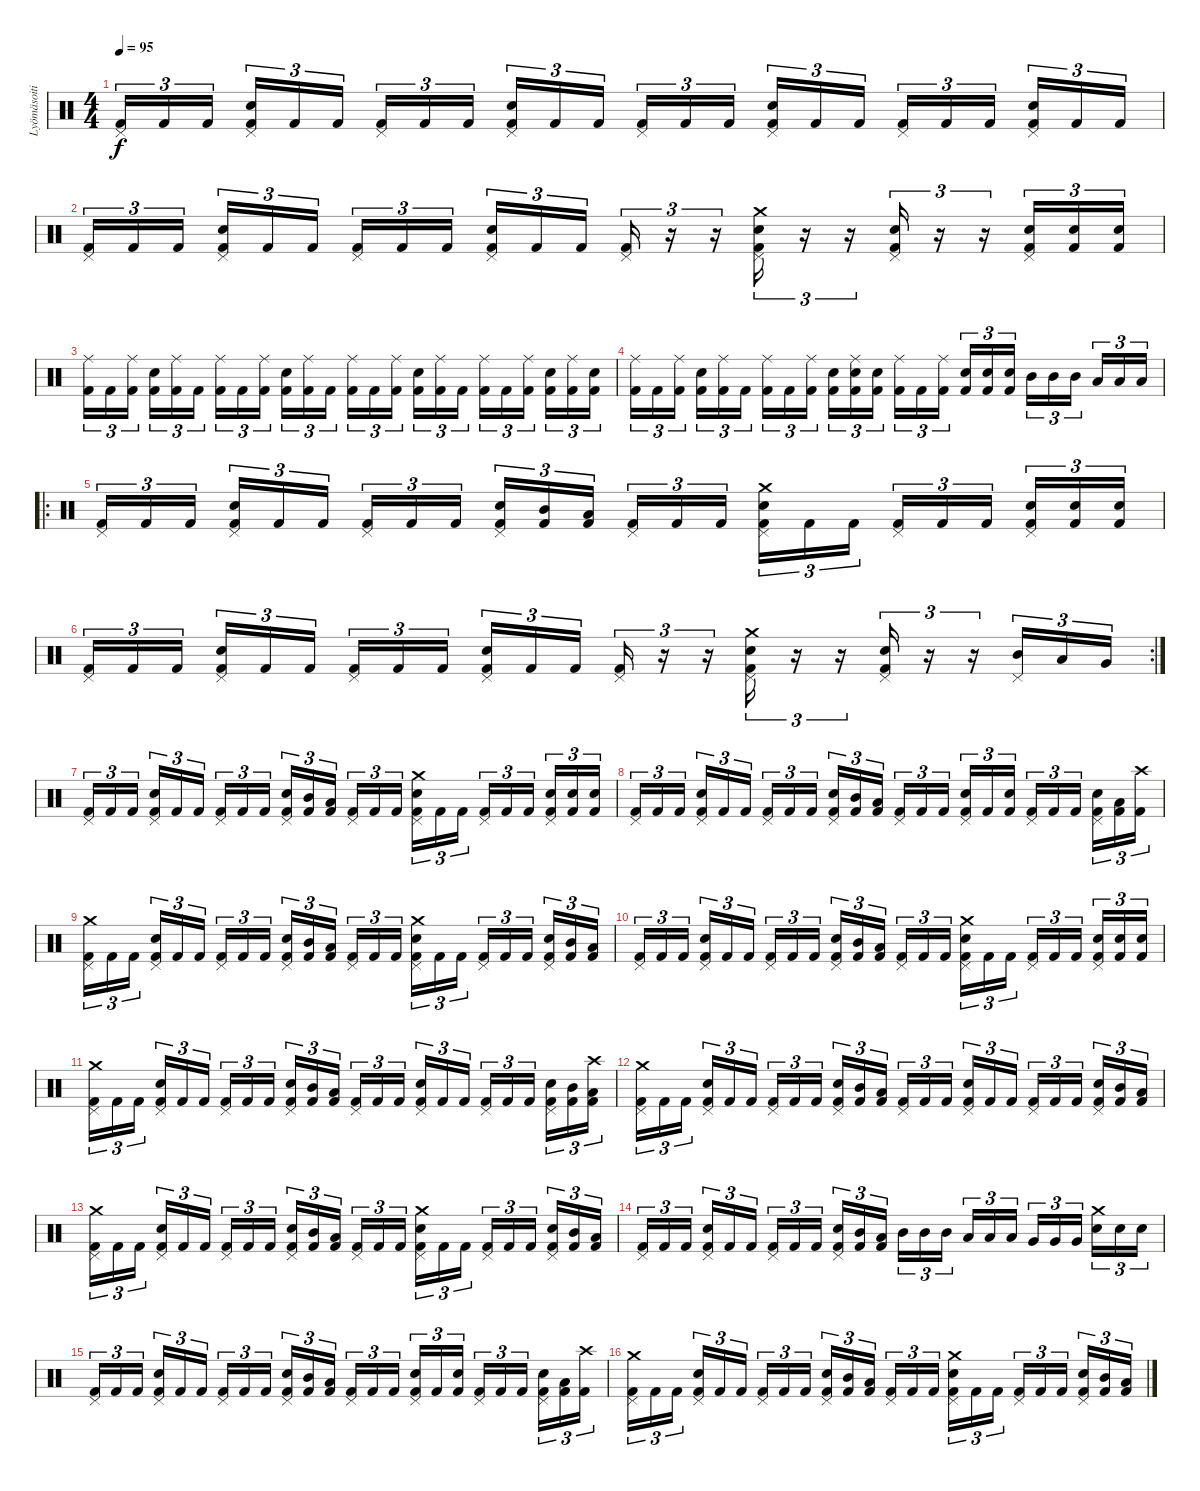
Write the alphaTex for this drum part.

\track ("Lyömäsoitin" "Lyömäsoiti") {instrument percussion}
\staff {score}
\articulation defaults
\ts (4 4)
\tempo 95
\clef neutral
\ks c
("Kick (hit) 2" "Pedal Hi-Hat (hit)").16{tu (3 2) dy f} "Kick (hit) 2".16{tu (3 2)} "Kick (hit) 2".16{tu (3 2)} ("Kick (hit) 2" "Electric Snare (hit)" "Pedal Hi-Hat (hit)").16{tu (3 2)} "Kick (hit) 2".16{tu (3 2)} "Kick (hit) 2".16{tu (3 2)} ("Kick (hit) 2" "Pedal Hi-Hat (hit)").16{tu (3 2)} "Kick (hit) 2".16{tu (3 2)} "Kick (hit) 2".16{tu (3 2)} ("Kick (hit) 2" "Electric Snare (hit)" "Pedal Hi-Hat (hit)").16{tu (3 2)} "Kick (hit) 2".16{tu (3 2)} "Kick (hit) 2".16{tu (3 2)} ("Kick (hit) 2" "Pedal Hi-Hat (hit)").16{tu (3 2)} "Kick (hit) 2".16{tu (3 2)} "Kick (hit) 2".16{tu (3 2)} ("Kick (hit) 2" "Electric Snare (hit)" "Pedal Hi-Hat (hit)").16{tu (3 2)} "Kick (hit) 2".16{tu (3 2)} "Kick (hit) 2".16{tu (3 2)} ("Kick (hit) 2" "Pedal Hi-Hat (hit)").16{tu (3 2)} "Kick (hit) 2".16{tu (3 2)} "Kick (hit) 2".16{tu (3 2)} ("Kick (hit) 2" "Electric Snare (hit)" "Pedal Hi-Hat (hit)").16{tu (3 2)} "Kick (hit) 2".16{tu (3 2)} "Kick (hit) 2".16{tu (3 2)} |
("Kick (hit) 2" "Pedal Hi-Hat (hit)").16{tu (3 2)} "Kick (hit) 2".16{tu (3 2)} "Kick (hit) 2".16{tu (3 2)} ("Kick (hit) 2" "Electric Snare (hit)" "Pedal Hi-Hat (hit)").16{tu (3 2)} "Kick (hit) 2".16{tu (3 2)} "Kick (hit) 2".16{tu (3 2)} ("Kick (hit) 2" "Pedal Hi-Hat (hit)").16{tu (3 2)} "Kick (hit) 2".16{tu (3 2)} "Kick (hit) 2".16{tu (3 2)} ("Kick (hit) 2" "Electric Snare (hit)" "Pedal Hi-Hat (hit)").16{tu (3 2)} "Kick (hit) 2".16{tu (3 2)} "Kick (hit) 2".16{tu (3 2)} ("Kick (hit) 2" "Pedal Hi-Hat (hit)").16{tu (3 2)} r.16{tu (3 2)} r.16{tu (3 2)} ("Kick (hit) 2" "Electric Snare (hit)" "Pedal Hi-Hat (hit)" "Crash medium (hit)").16{tu (3 2)} r.16{tu (3 2)} r.16{tu (3 2)} ("Kick (hit) 2" "Electric Snare (hit)" "Pedal Hi-Hat (hit)").16{tu (3 2)} r.16{tu (3 2)} r.16{tu (3 2)} ("Kick (hit) 2" "Electric Snare (hit)" "Pedal Hi-Hat (hit)").16{tu (3 2)} ("Kick (hit) 2" "Electric Snare (hit)").16{tu (3 2)} ("Kick (hit) 2" "Electric Snare (hit)").16{tu (3 2)} |
("Kick (hit) 2" "Ride (middle)").16{tu (3 2)} "Kick (hit) 2".16{tu (3 2)} ("Kick (hit) 2" "Ride (middle)").16{tu (3 2)} ("Kick (hit) 2" "Electric Snare (hit)").16{tu (3 2)} ("Kick (hit) 2" "Ride (middle)").16{tu (3 2)} "Kick (hit) 2".16{tu (3 2)} ("Kick (hit) 2" "Ride (middle)").16{tu (3 2)} "Kick (hit) 2".16{tu (3 2)} ("Kick (hit) 2" "Ride (middle)").16{tu (3 2)} ("Kick (hit) 2" "Electric Snare (hit)").16{tu (3 2)} ("Kick (hit) 2" "Ride (middle)").16{tu (3 2)} "Kick (hit) 2".16{tu (3 2)} ("Kick (hit) 2" "Ride (middle)").16{tu (3 2)} "Kick (hit) 2".16{tu (3 2)} ("Kick (hit) 2" "Ride (middle)").16{tu (3 2)} ("Kick (hit) 2" "Electric Snare (hit)").16{tu (3 2)} ("Kick (hit) 2" "Ride (middle)").16{tu (3 2)} "Kick (hit) 2".16{tu (3 2)} ("Kick (hit) 2" "Ride (middle)").16{tu (3 2)} "Kick (hit) 2".16{tu (3 2)} ("Kick (hit) 2" "Ride (middle)").16{tu (3 2)} ("Kick (hit) 2" "Electric Snare (hit)").16{tu (3 2)} ("Kick (hit) 2" "Ride (middle)").16{tu (3 2)} ("Kick (hit) 2" "Electric Snare (hit)").16{tu (3 2)} |
("Kick (hit) 2" "Ride (middle)").16{tu (3 2)} "Kick (hit) 2".16{tu (3 2)} ("Kick (hit) 2" "Ride (middle)").16{tu (3 2)} ("Kick (hit) 2" "Electric Snare (hit)").16{tu (3 2)} ("Kick (hit) 2" "Ride (middle)").16{tu (3 2)} "Kick (hit) 2".16{tu (3 2)} ("Kick (hit) 2" "Ride (middle)").16{tu (3 2)} "Kick (hit) 2".16{tu (3 2)} ("Kick (hit) 2" "Ride (middle)").16{tu (3 2)} ("Kick (hit) 2" "Electric Snare (hit)").16{tu (3 2)} ("Kick (hit) 2" "Electric Snare (hit)" "Ride (middle)").16{tu (3 2)} ("Kick (hit) 2" "Electric Snare (hit)").16{tu (3 2)} ("Kick (hit) 2" "Ride (middle)").16{tu (3 2)} "Kick (hit) 2".16{tu (3 2)} ("Kick (hit) 2" "Ride (middle)").16{tu (3 2)} ("Kick (hit) 2" "Electric Snare (hit)").16{tu (3 2)} ("Kick (hit) 2" "Electric Snare (hit)").16{tu (3 2)} ("Kick (hit) 2" "Electric Snare (hit)").16{tu (3 2)} "Mid Tom (hit)".16{tu (3 2)} "Mid Tom (hit)".16{tu (3 2)} "Mid Tom (hit)".16{tu (3 2)} "Low Tom (hit)".16{tu (3 2)} "Low Tom (hit)".16{tu (3 2)} "Low Tom (hit)".16{tu (3 2)} |
\ro
("Kick (hit) 2" "Pedal Hi-Hat (hit)").16{tu (3 2)} "Kick (hit) 2".16{tu (3 2)} "Kick (hit) 2".16{tu (3 2)} ("Kick (hit) 2" "Electric Snare (hit)" "Pedal Hi-Hat (hit)").16{tu (3 2)} "Kick (hit) 2".16{tu (3 2)} "Kick (hit) 2".16{tu (3 2)} ("Kick (hit) 2" "Pedal Hi-Hat (hit)").16{tu (3 2)} "Kick (hit) 2".16{tu (3 2)} "Kick (hit) 2".16{tu (3 2)} ("Kick (hit) 2" "Electric Snare (hit)" "Pedal Hi-Hat (hit)").16{tu (3 2)} ("Kick (hit) 2" "Mid Tom (hit)").16{tu (3 2)} ("Kick (hit) 2" "Low Tom (hit)").16{tu (3 2)} ("Kick (hit) 2" "Pedal Hi-Hat (hit)").16{tu (3 2)} "Kick (hit) 2".16{tu (3 2)} "Kick (hit) 2".16{tu (3 2)} ("Kick (hit) 2" "Electric Snare (hit)" "Pedal Hi-Hat (hit)" "Crash medium (hit)").16{tu (3 2)} "Kick (hit) 2".16{tu (3 2)} "Kick (hit) 2".16{tu (3 2)} ("Kick (hit) 2" "Pedal Hi-Hat (hit)").16{tu (3 2)} "Kick (hit) 2".16{tu (3 2)} "Kick (hit) 2".16{tu (3 2)} ("Kick (hit) 2" "Electric Snare (hit)" "Pedal Hi-Hat (hit)").16{tu (3 2)} ("Kick (hit) 2" "Electric Snare (hit)").16{tu (3 2)} ("Kick (hit) 2" "Electric Snare (hit)").16{tu (3 2)} |
\rc 2
("Kick (hit) 2" "Pedal Hi-Hat (hit)").16{tu (3 2)} "Kick (hit) 2".16{tu (3 2)} "Kick (hit) 2".16{tu (3 2)} ("Kick (hit) 2" "Electric Snare (hit)" "Pedal Hi-Hat (hit)").16{tu (3 2)} "Kick (hit) 2".16{tu (3 2)} "Kick (hit) 2".16{tu (3 2)} ("Kick (hit) 2" "Pedal Hi-Hat (hit)").16{tu (3 2)} "Kick (hit) 2".16{tu (3 2)} "Kick (hit) 2".16{tu (3 2)} ("Kick (hit) 2" "Electric Snare (hit)" "Pedal Hi-Hat (hit)").16{tu (3 2)} "Kick (hit) 2".16{tu (3 2)} "Kick (hit) 2".16{tu (3 2)} ("Kick (hit) 2" "Pedal Hi-Hat (hit)").16{tu (3 2)} r.16{tu (3 2)} r.16{tu (3 2)} ("Kick (hit) 2" "Electric Snare (hit)" "Pedal Hi-Hat (hit)" "Crash medium (hit)").16{tu (3 2)} r.16{tu (3 2)} r.16{tu (3 2)} ("Kick (hit) 2" "Electric Snare (hit)" "Pedal Hi-Hat (hit)").16{tu (3 2)} r.16{tu (3 2)} r.16{tu (3 2)} ("Mid Tom (hit)" "Pedal Hi-Hat (hit)").16{tu (3 2)} "Low Tom (hit)".16{tu (3 2)} "Very Low Tom (hit)".16{tu (3 2)} |
("Kick (hit) 2" "Pedal Hi-Hat (hit)").16{tu (3 2)} "Kick (hit) 2".16{tu (3 2)} "Kick (hit) 2".16{tu (3 2)} ("Kick (hit) 2" "Electric Snare (hit)" "Pedal Hi-Hat (hit)").16{tu (3 2)} "Kick (hit) 2".16{tu (3 2)} "Kick (hit) 2".16{tu (3 2)} ("Kick (hit) 2" "Pedal Hi-Hat (hit)").16{tu (3 2)} "Kick (hit) 2".16{tu (3 2)} "Kick (hit) 2".16{tu (3 2)} ("Kick (hit) 2" "Electric Snare (hit)" "Pedal Hi-Hat (hit)").16{tu (3 2)} ("Kick (hit) 2" "Mid Tom (hit)").16{tu (3 2)} ("Kick (hit) 2" "Low Tom (hit)").16{tu (3 2)} ("Kick (hit) 2" "Pedal Hi-Hat (hit)").16{tu (3 2)} "Kick (hit) 2".16{tu (3 2)} "Kick (hit) 2".16{tu (3 2)} ("Kick (hit) 2" "Electric Snare (hit)" "Pedal Hi-Hat (hit)" "Crash medium (hit)").16{tu (3 2)} "Kick (hit) 2".16{tu (3 2)} "Kick (hit) 2".16{tu (3 2)} ("Kick (hit) 2" "Pedal Hi-Hat (hit)").16{tu (3 2)} "Kick (hit) 2".16{tu (3 2)} "Kick (hit) 2".16{tu (3 2)} ("Kick (hit) 2" "Electric Snare (hit)" "Pedal Hi-Hat (hit)").16{tu (3 2)} ("Kick (hit) 2" "Electric Snare (hit)").16{tu (3 2)} ("Kick (hit) 2" "Electric Snare (hit)").16{tu (3 2)} |
("Kick (hit) 2" "Pedal Hi-Hat (hit)").16{tu (3 2)} "Kick (hit) 2".16{tu (3 2)} "Kick (hit) 2".16{tu (3 2)} ("Kick (hit) 2" "Electric Snare (hit)" "Pedal Hi-Hat (hit)").16{tu (3 2)} "Kick (hit) 2".16{tu (3 2)} "Kick (hit) 2".16{tu (3 2)} ("Kick (hit) 2" "Pedal Hi-Hat (hit)").16{tu (3 2)} "Kick (hit) 2".16{tu (3 2)} "Kick (hit) 2".16{tu (3 2)} ("Kick (hit) 2" "Electric Snare (hit)" "Pedal Hi-Hat (hit)").16{tu (3 2)} ("Kick (hit) 2" "Mid Tom (hit)").16{tu (3 2)} ("Kick (hit) 2" "Low Tom (hit)").16{tu (3 2)} ("Kick (hit) 2" "Pedal Hi-Hat (hit)").16{tu (3 2)} "Kick (hit) 2".16{tu (3 2)} "Kick (hit) 2".16{tu (3 2)} ("Kick (hit) 2" "Electric Snare (hit)" "Pedal Hi-Hat (hit)").16{tu (3 2)} "Kick (hit) 2".16{tu (3 2)} ("Kick (hit) 2" "Electric Snare (hit)").16{tu (3 2)} ("Kick (hit) 2" "Pedal Hi-Hat (hit)").16{tu (3 2)} "Kick (hit) 2".16{tu (3 2)} "Kick (hit) 2".16{tu (3 2)} ("Kick (hit) 2" "Electric Snare (hit)" "Pedal Hi-Hat (hit)").16{tu (3 2)} ("Kick (hit) 2" "Low Tom (hit)").16{tu (3 2)} ("Kick (hit) 2" "Crash high (hit)").16{tu (3 2)} |
("Kick (hit) 2" "Pedal Hi-Hat (hit)" "Crash medium (hit)").16{tu (3 2)} "Kick (hit) 2".16{tu (3 2)} "Kick (hit) 2".16{tu (3 2)} ("Kick (hit) 2" "Electric Snare (hit)" "Pedal Hi-Hat (hit)").16{tu (3 2)} "Kick (hit) 2".16{tu (3 2)} "Kick (hit) 2".16{tu (3 2)} ("Kick (hit) 2" "Pedal Hi-Hat (hit)").16{tu (3 2)} "Kick (hit) 2".16{tu (3 2)} "Kick (hit) 2".16{tu (3 2)} ("Kick (hit) 2" "Electric Snare (hit)" "Pedal Hi-Hat (hit)").16{tu (3 2)} ("Kick (hit) 2" "Mid Tom (hit)").16{tu (3 2)} ("Kick (hit) 2" "Low Tom (hit)").16{tu (3 2)} ("Kick (hit) 2" "Pedal Hi-Hat (hit)").16{tu (3 2)} "Kick (hit) 2".16{tu (3 2)} "Kick (hit) 2".16{tu (3 2)} ("Kick (hit) 2" "Electric Snare (hit)" "Pedal Hi-Hat (hit)" "Crash medium (hit)").16{tu (3 2)} "Kick (hit) 2".16{tu (3 2)} "Kick (hit) 2".16{tu (3 2)} ("Kick (hit) 2" "Pedal Hi-Hat (hit)").16{tu (3 2)} "Kick (hit) 2".16{tu (3 2)} "Kick (hit) 2".16{tu (3 2)} ("Kick (hit) 2" "Electric Snare (hit)" "Pedal Hi-Hat (hit)").16{tu (3 2)} ("Kick (hit) 2" "Mid Tom (hit)").16{tu (3 2)} ("Kick (hit) 2" "Low Tom (hit)").16{tu (3 2)} |
("Kick (hit) 2" "Pedal Hi-Hat (hit)").16{tu (3 2)} "Kick (hit) 2".16{tu (3 2)} "Kick (hit) 2".16{tu (3 2)} ("Kick (hit) 2" "Electric Snare (hit)" "Pedal Hi-Hat (hit)").16{tu (3 2)} "Kick (hit) 2".16{tu (3 2)} "Kick (hit) 2".16{tu (3 2)} ("Kick (hit) 2" "Pedal Hi-Hat (hit)").16{tu (3 2)} "Kick (hit) 2".16{tu (3 2)} "Kick (hit) 2".16{tu (3 2)} ("Kick (hit) 2" "Electric Snare (hit)" "Pedal Hi-Hat (hit)").16{tu (3 2)} ("Kick (hit) 2" "Mid Tom (hit)").16{tu (3 2)} ("Kick (hit) 2" "Low Tom (hit)").16{tu (3 2)} ("Kick (hit) 2" "Pedal Hi-Hat (hit)").16{tu (3 2)} "Kick (hit) 2".16{tu (3 2)} "Kick (hit) 2".16{tu (3 2)} ("Kick (hit) 2" "Electric Snare (hit)" "Pedal Hi-Hat (hit)" "Crash medium (hit)").16{tu (3 2)} "Kick (hit) 2".16{tu (3 2)} "Kick (hit) 2".16{tu (3 2)} ("Kick (hit) 2" "Pedal Hi-Hat (hit)").16{tu (3 2)} "Kick (hit) 2".16{tu (3 2)} "Kick (hit) 2".16{tu (3 2)} ("Kick (hit) 2" "Electric Snare (hit)" "Pedal Hi-Hat (hit)").16{tu (3 2)} ("Kick (hit) 2" "Electric Snare (hit)").16{tu (3 2)} ("Kick (hit) 2" "Electric Snare (hit)").16{tu (3 2)} |
("Kick (hit) 2" "Pedal Hi-Hat (hit)" "Crash medium (hit)").16{tu (3 2)} "Kick (hit) 2".16{tu (3 2)} "Kick (hit) 2".16{tu (3 2)} ("Kick (hit) 2" "Electric Snare (hit)" "Pedal Hi-Hat (hit)").16{tu (3 2)} "Kick (hit) 2".16{tu (3 2)} "Kick (hit) 2".16{tu (3 2)} ("Kick (hit) 2" "Pedal Hi-Hat (hit)").16{tu (3 2)} "Kick (hit) 2".16{tu (3 2)} "Kick (hit) 2".16{tu (3 2)} ("Kick (hit) 2" "Electric Snare (hit)" "Pedal Hi-Hat (hit)").16{tu (3 2)} ("Kick (hit) 2" "Mid Tom (hit)").16{tu (3 2)} ("Kick (hit) 2" "Low Tom (hit)").16{tu (3 2)} ("Kick (hit) 2" "Pedal Hi-Hat (hit)").16{tu (3 2)} "Kick (hit) 2".16{tu (3 2)} "Kick (hit) 2".16{tu (3 2)} ("Kick (hit) 2" "Electric Snare (hit)" "Pedal Hi-Hat (hit)").16{tu (3 2)} "Kick (hit) 2".16{tu (3 2)} "Kick (hit) 2".16{tu (3 2)} ("Kick (hit) 2" "Pedal Hi-Hat (hit)").16{tu (3 2)} "Kick (hit) 2".16{tu (3 2)} "Kick (hit) 2".16{tu (3 2)} ("Kick (hit) 2" "Electric Snare (hit)" "Pedal Hi-Hat (hit)").16{tu (3 2)} ("Kick (hit) 2" "Mid Tom (hit)").16{tu (3 2)} ("Kick (hit) 2" "Low Tom (hit)" "Crash high (hit)").16{tu (3 2)} |
("Kick (hit) 2" "Pedal Hi-Hat (hit)" "Crash medium (hit)").16{tu (3 2)} "Kick (hit) 2".16{tu (3 2)} "Kick (hit) 2".16{tu (3 2)} ("Kick (hit) 2" "Electric Snare (hit)" "Pedal Hi-Hat (hit)").16{tu (3 2)} "Kick (hit) 2".16{tu (3 2)} "Kick (hit) 2".16{tu (3 2)} ("Kick (hit) 2" "Pedal Hi-Hat (hit)").16{tu (3 2)} "Kick (hit) 2".16{tu (3 2)} "Kick (hit) 2".16{tu (3 2)} ("Kick (hit) 2" "Electric Snare (hit)" "Pedal Hi-Hat (hit)").16{tu (3 2)} ("Kick (hit) 2" "Mid Tom (hit)").16{tu (3 2)} ("Kick (hit) 2" "Low Tom (hit)").16{tu (3 2)} ("Kick (hit) 2" "Pedal Hi-Hat (hit)").16{tu (3 2)} "Kick (hit) 2".16{tu (3 2)} "Kick (hit) 2".16{tu (3 2)} ("Kick (hit) 2" "Electric Snare (hit)" "Pedal Hi-Hat (hit)").16{tu (3 2)} "Kick (hit) 2".16{tu (3 2)} "Kick (hit) 2".16{tu (3 2)} ("Kick (hit) 2" "Pedal Hi-Hat (hit)").16{tu (3 2)} "Kick (hit) 2".16{tu (3 2)} "Kick (hit) 2".16{tu (3 2)} ("Kick (hit) 2" "Electric Snare (hit)" "Pedal Hi-Hat (hit)").16{tu (3 2)} ("Kick (hit) 2" "Mid Tom (hit)").16{tu (3 2)} ("Kick (hit) 2" "Low Tom (hit)").16{tu (3 2)} |
("Kick (hit) 2" "Pedal Hi-Hat (hit)" "Crash medium (hit)").16{tu (3 2)} "Kick (hit) 2".16{tu (3 2)} "Kick (hit) 2".16{tu (3 2)} ("Kick (hit) 2" "Electric Snare (hit)" "Pedal Hi-Hat (hit)").16{tu (3 2)} "Kick (hit) 2".16{tu (3 2)} "Kick (hit) 2".16{tu (3 2)} ("Kick (hit) 2" "Pedal Hi-Hat (hit)").16{tu (3 2)} "Kick (hit) 2".16{tu (3 2)} "Kick (hit) 2".16{tu (3 2)} ("Kick (hit) 2" "Electric Snare (hit)" "Pedal Hi-Hat (hit)").16{tu (3 2)} ("Kick (hit) 2" "Mid Tom (hit)").16{tu (3 2)} ("Kick (hit) 2" "Low Tom (hit)").16{tu (3 2)} ("Kick (hit) 2" "Pedal Hi-Hat (hit)").16{tu (3 2)} "Kick (hit) 2".16{tu (3 2)} "Kick (hit) 2".16{tu (3 2)} ("Kick (hit) 2" "Electric Snare (hit)" "Pedal Hi-Hat (hit)" "Crash medium (hit)").16{tu (3 2)} "Kick (hit) 2".16{tu (3 2)} "Kick (hit) 2".16{tu (3 2)} ("Kick (hit) 2" "Pedal Hi-Hat (hit)").16{tu (3 2)} "Kick (hit) 2".16{tu (3 2)} "Kick (hit) 2".16{tu (3 2)} ("Kick (hit) 2" "Electric Snare (hit)" "Pedal Hi-Hat (hit)").16{tu (3 2)} ("Kick (hit) 2" "Mid Tom (hit)").16{tu (3 2)} ("Kick (hit) 2" "Low Tom (hit)").16{tu (3 2)} |
("Kick (hit) 2" "Pedal Hi-Hat (hit)").16{tu (3 2)} "Kick (hit) 2".16{tu (3 2)} "Kick (hit) 2".16{tu (3 2)} ("Kick (hit) 2" "Electric Snare (hit)" "Pedal Hi-Hat (hit)").16{tu (3 2)} "Kick (hit) 2".16{tu (3 2)} "Kick (hit) 2".16{tu (3 2)} ("Kick (hit) 2" "Pedal Hi-Hat (hit)").16{tu (3 2)} "Kick (hit) 2".16{tu (3 2)} "Kick (hit) 2".16{tu (3 2)} ("Kick (hit) 2" "Electric Snare (hit)" "Pedal Hi-Hat (hit)").16{tu (3 2)} ("Kick (hit) 2" "Mid Tom (hit)").16{tu (3 2)} ("Kick (hit) 2" "Low Tom (hit)").16{tu (3 2)} "Mid Tom (hit)".16{tu (3 2)} "Mid Tom (hit)".16{tu (3 2)} "Mid Tom (hit)".16{tu (3 2)} "Low Tom (hit)".16{tu (3 2)} "Low Tom (hit)".16{tu (3 2)} "Low Tom (hit)".16{tu (3 2)} "Very Low Tom (hit)".16{tu (3 2)} "Very Low Tom (hit)".16{tu (3 2)} "Very Low Tom (hit)".16{tu (3 2)} ("Electric Snare (hit)" "Crash medium (hit)").16{tu (3 2)} "Electric Snare (hit)".16{tu (3 2)} "Electric Snare (hit)".16{tu (3 2)} |
("Kick (hit) 2" "Pedal Hi-Hat (hit)").16{tu (3 2)} "Kick (hit) 2".16{tu (3 2)} "Kick (hit) 2".16{tu (3 2)} ("Kick (hit) 2" "Electric Snare (hit)" "Pedal Hi-Hat (hit)").16{tu (3 2)} "Kick (hit) 2".16{tu (3 2)} "Kick (hit) 2".16{tu (3 2)} ("Kick (hit) 2" "Pedal Hi-Hat (hit)").16{tu (3 2)} "Kick (hit) 2".16{tu (3 2)} "Kick (hit) 2".16{tu (3 2)} ("Kick (hit) 2" "Electric Snare (hit)" "Pedal Hi-Hat (hit)").16{tu (3 2)} ("Kick (hit) 2" "Mid Tom (hit)").16{tu (3 2)} ("Kick (hit) 2" "Low Tom (hit)").16{tu (3 2)} ("Kick (hit) 2" "Pedal Hi-Hat (hit)").16{tu (3 2)} "Kick (hit) 2".16{tu (3 2)} "Kick (hit) 2".16{tu (3 2)} ("Kick (hit) 2" "Electric Snare (hit)" "Pedal Hi-Hat (hit)").16{tu (3 2)} "Kick (hit) 2".16{tu (3 2)} ("Kick (hit) 2" "Electric Snare (hit)").16{tu (3 2)} ("Kick (hit) 2" "Pedal Hi-Hat (hit)").16{tu (3 2)} "Kick (hit) 2".16{tu (3 2)} "Kick (hit) 2".16{tu (3 2)} ("Kick (hit) 2" "Electric Snare (hit)" "Pedal Hi-Hat (hit)").16{tu (3 2)} ("Kick (hit) 2" "Low Tom (hit)").16{tu (3 2)} ("Kick (hit) 2" "Crash high (hit)").16{tu (3 2)} |
("Kick (hit) 2" "Pedal Hi-Hat (hit)" "Crash medium (hit)").16{tu (3 2)} "Kick (hit) 2".16{tu (3 2)} "Kick (hit) 2".16{tu (3 2)} ("Kick (hit) 2" "Electric Snare (hit)" "Pedal Hi-Hat (hit)").16{tu (3 2)} "Kick (hit) 2".16{tu (3 2)} "Kick (hit) 2".16{tu (3 2)} ("Kick (hit) 2" "Pedal Hi-Hat (hit)").16{tu (3 2)} "Kick (hit) 2".16{tu (3 2)} "Kick (hit) 2".16{tu (3 2)} ("Kick (hit) 2" "Electric Snare (hit)" "Pedal Hi-Hat (hit)").16{tu (3 2)} ("Kick (hit) 2" "Mid Tom (hit)").16{tu (3 2)} ("Kick (hit) 2" "Low Tom (hit)").16{tu (3 2)} ("Kick (hit) 2" "Pedal Hi-Hat (hit)").16{tu (3 2)} "Kick (hit) 2".16{tu (3 2)} "Kick (hit) 2".16{tu (3 2)} ("Kick (hit) 2" "Electric Snare (hit)" "Pedal Hi-Hat (hit)" "Crash medium (hit)").16{tu (3 2)} "Kick (hit) 2".16{tu (3 2)} "Kick (hit) 2".16{tu (3 2)} ("Kick (hit) 2" "Pedal Hi-Hat (hit)").16{tu (3 2)} "Kick (hit) 2".16{tu (3 2)} "Kick (hit) 2".16{tu (3 2)} ("Kick (hit) 2" "Electric Snare (hit)" "Pedal Hi-Hat (hit)").16{tu (3 2)} ("Kick (hit) 2" "Mid Tom (hit)").16{tu (3 2)} ("Kick (hit) 2" "Low Tom (hit)").16{tu (3 2)}
